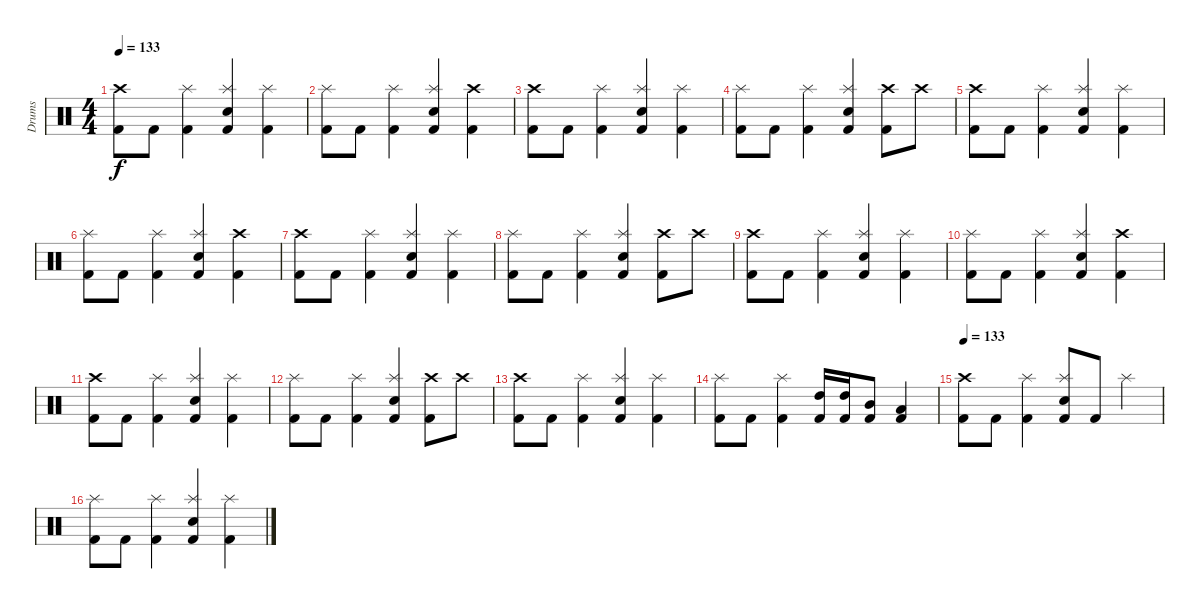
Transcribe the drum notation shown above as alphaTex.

\track ("Drums" "Drums") {instrument percussion}
\staff {score}
\articulation defaults
\ts (4 4)
\tempo 133
\clef neutral
\ks c
("Kick (hit) 2" "Crash high (hit)").8{dy f} "Kick (hit) 2".8 ("Kick (hit) 2" "Splash (hit)").4 ("Kick (hit) 2" "Snare (hit) 2" "Splash (hit)").4 ("Kick (hit) 2" "Splash (hit)").4 |
("Kick (hit) 2" "Splash (hit)").8 "Kick (hit) 2".8 ("Kick (hit) 2" "Splash (hit)").4 ("Kick (hit) 2" "Snare (hit) 2" "Splash (hit)").4 ("Kick (hit) 2" "Crash high (hit)").4 |
("Kick (hit) 2" "Crash high (hit)").8 "Kick (hit) 2".8 ("Kick (hit) 2" "Splash (hit)").4 ("Kick (hit) 2" "Snare (hit) 2" "Splash (hit)").4 ("Kick (hit) 2" "Splash (hit)").4 |
("Kick (hit) 2" "Splash (hit)").8 "Kick (hit) 2".8 ("Kick (hit) 2" "Splash (hit)").4 ("Kick (hit) 2" "Snare (hit) 2" "Splash (hit)").4 ("Kick (hit) 2" "Crash high (hit)").8 "Crash high (hit)".8 |
("Kick (hit) 2" "Crash high (hit)").8 "Kick (hit) 2".8 ("Kick (hit) 2" "Splash (hit)").4 ("Kick (hit) 2" "Snare (hit) 2" "Splash (hit)").4 ("Kick (hit) 2" "Splash (hit)").4 |
("Kick (hit) 2" "Splash (hit)").8 "Kick (hit) 2".8 ("Kick (hit) 2" "Splash (hit)").4 ("Kick (hit) 2" "Snare (hit) 2" "Splash (hit)").4 ("Kick (hit) 2" "Crash high (hit)").4 |
("Kick (hit) 2" "Crash high (hit)").8 "Kick (hit) 2".8 ("Kick (hit) 2" "Splash (hit)").4 ("Kick (hit) 2" "Snare (hit) 2" "Splash (hit)").4 ("Kick (hit) 2" "Splash (hit)").4 |
("Kick (hit) 2" "Splash (hit)").8 "Kick (hit) 2".8 ("Kick (hit) 2" "Splash (hit)").4 ("Kick (hit) 2" "Snare (hit) 2" "Splash (hit)").4 ("Kick (hit) 2" "Crash high (hit)").8 "Crash high (hit)".8 |
("Kick (hit) 2" "Crash high (hit)").8 "Kick (hit) 2".8 ("Kick (hit) 2" "Splash (hit)").4 ("Kick (hit) 2" "Snare (hit) 2" "Splash (hit)").4 ("Kick (hit) 2" "Splash (hit)").4 |
("Kick (hit) 2" "Splash (hit)").8 "Kick (hit) 2".8 ("Kick (hit) 2" "Splash (hit)").4 ("Kick (hit) 2" "Snare (hit) 2" "Splash (hit)").4 ("Kick (hit) 2" "Crash high (hit)").4 |
("Kick (hit) 2" "Crash high (hit)").8 "Kick (hit) 2".8 ("Kick (hit) 2" "Splash (hit)").4 ("Kick (hit) 2" "Snare (hit) 2" "Splash (hit)").4 ("Kick (hit) 2" "Splash (hit)").4 |
("Kick (hit) 2" "Splash (hit)").8 "Kick (hit) 2".8 ("Kick (hit) 2" "Splash (hit)").4 ("Kick (hit) 2" "Snare (hit) 2" "Splash (hit)").4 ("Kick (hit) 2" "Crash high (hit)").8 "Crash high (hit)".8 |
("Kick (hit) 2" "Crash high (hit)").8 "Kick (hit) 2".8 ("Kick (hit) 2" "Splash (hit)").4 ("Kick (hit) 2" "Snare (hit) 2" "Splash (hit)").4 ("Kick (hit) 2" "Splash (hit)").4 |
("Kick (hit) 2" "Splash (hit)").8 "Kick (hit) 2".8 ("Kick (hit) 2" "Splash (hit)").4 ("Kick (hit) 2" "High Tom (hit)").16 ("Kick (hit) 2" "High Tom (hit)").16 ("Kick (hit) 2" "Mid Tom (hit)").8 ("Kick (hit) 2" "Low Tom (hit)").4 |
\tempo 133
("Kick (hit) 2" "Crash high (hit)").8 "Kick (hit) 2".8 ("Kick (hit) 2" "Splash (hit)").4 ("Kick (hit) 2" "Snare (hit) 2" "Splash (hit)").8 "Kick (hit) 2".8 "Splash (hit)".4 |
("Kick (hit) 2" "Splash (hit)").8 "Kick (hit) 2".8 ("Kick (hit) 2" "Splash (hit)").4 ("Kick (hit) 2" "Snare (hit) 2" "Splash (hit)").4 ("Kick (hit) 2" "Splash (hit)").4
